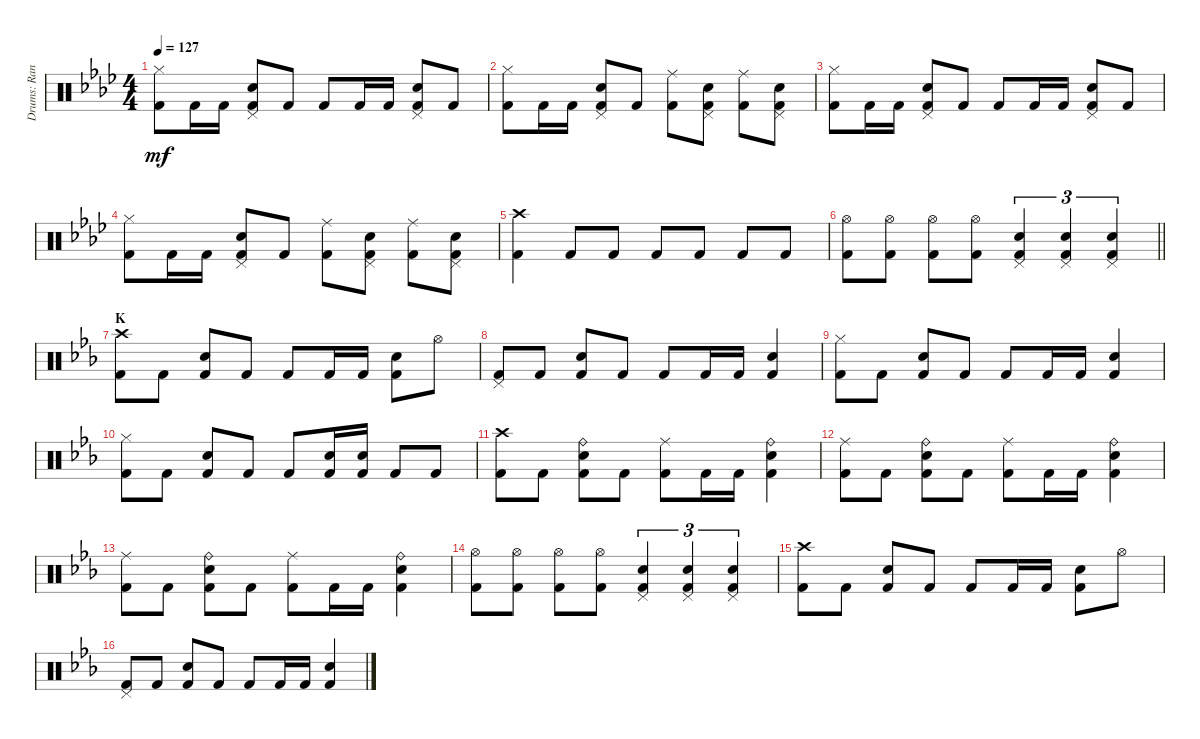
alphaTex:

\track ("Drums: Randy" "Drums: Ran") {instrument percussion}
\staff {score}
\articulation defaults
\ts (4 4)
\tempo 127
\clef neutral
\ks ab
("Hi-Hat (closed)" "Kick (hit) 2").8{dy mf} "Kick (hit) 2".16 "Kick (hit) 2".16 ("Pedal Hi-Hat (hit)" "Snare (hit) 2" "Kick (hit) 2").8 "Kick (hit) 2".8 "Kick (hit) 2".8 "Kick (hit) 2".16 "Kick (hit) 2".16 ("Pedal Hi-Hat (hit)" "Snare (hit) 2" "Kick (hit) 2").8 "Kick (hit) 2".8 |
("Hi-Hat (closed)" "Kick (hit) 2").8 "Kick (hit) 2".16 "Kick (hit) 2".16 ("Pedal Hi-Hat (hit)" "Snare (hit) 2" "Kick (hit) 2").8 "Kick (hit) 2".8 ("Ride (middle)" "Kick (hit) 2").8 ("Pedal Hi-Hat (hit)" "Snare (hit) 2" "Kick (hit) 2").8 ("Ride (middle)" "Kick (hit) 2").8 ("Pedal Hi-Hat (hit)" "Snare (hit) 2" "Kick (hit) 2").8 |
("Hi-Hat (closed)" "Kick (hit) 2").8 "Kick (hit) 2".16 "Kick (hit) 2".16 ("Pedal Hi-Hat (hit)" "Snare (hit) 2" "Kick (hit) 2").8 "Kick (hit) 2".8 "Kick (hit) 2".8 "Kick (hit) 2".16 "Kick (hit) 2".16 ("Pedal Hi-Hat (hit)" "Snare (hit) 2" "Kick (hit) 2").8 "Kick (hit) 2".8 |
("Hi-Hat (closed)" "Kick (hit) 2").8 "Kick (hit) 2".16 "Kick (hit) 2".16 ("Pedal Hi-Hat (hit)" "Snare (hit) 2" "Kick (hit) 2").8 "Kick (hit) 2".8 ("Ride (middle)" "Kick (hit) 2").8 ("Pedal Hi-Hat (hit)" "Snare (hit) 2" "Kick (hit) 2").8 ("Ride (middle)" "Kick (hit) 2").8 ("Pedal Hi-Hat (hit)" "Snare (hit) 2" "Kick (hit) 2").8 |
("Crash high (hit)" "Kick (hit) 2").4 "Kick (hit) 2".8 "Kick (hit) 2".8 "Kick (hit) 2".8 "Kick (hit) 2".8 "Kick (hit) 2".8 "Kick (hit) 2".8 |
\barLineRight lightlight
("Hi-Hat (open)" "Kick (hit) 2").8 ("Hi-Hat (open)" "Kick (hit) 2").8 ("Hi-Hat (open)" "Kick (hit) 2").8 ("Hi-Hat (open)" "Kick (hit) 2").8 ("Pedal Hi-Hat (hit)" "Snare (hit) 2" "Kick (hit) 2").4{tu (3 2)} ("Pedal Hi-Hat (hit)" "Snare (hit) 2" "Kick (hit) 2").4{tu (3 2)} ("Pedal Hi-Hat (hit)" "Snare (hit) 2" "Kick (hit) 2").4{tu (3 2)} |
\section ("" "K")
\ks eb
("Crash high (hit)" "Kick (hit) 2").8 "Kick (hit) 2".8 ("Snare (hit) 2" "Kick (hit) 2").8 "Kick (hit) 2".8 "Kick (hit) 2".8 "Kick (hit) 2".16 "Kick (hit) 2".16 ("Snare (hit) 2" "Kick (hit) 2").8 "Hi-Hat (open)".8 |
("Pedal Hi-Hat (hit)" "Kick (hit) 2").8 "Kick (hit) 2".8 ("Snare (hit) 2" "Kick (hit) 2").8 "Kick (hit) 2".8 "Kick (hit) 2".8 "Kick (hit) 2".16 "Kick (hit) 2".16 ("Snare (hit) 2" "Kick (hit) 2").4 |
("Hi-Hat (closed)" "Kick (hit) 2").8 "Kick (hit) 2".8 ("Snare (hit) 2" "Kick (hit) 2").8 "Kick (hit) 2".8 "Kick (hit) 2".8 "Kick (hit) 2".16 "Kick (hit) 2".16 ("Snare (hit) 2" "Kick (hit) 2").4 |
("Hi-Hat (closed)" "Kick (hit) 2").8 "Kick (hit) 2".8 ("Snare (hit) 2" "Kick (hit) 2").8 "Kick (hit) 2".8 "Kick (hit) 2".8 ("Snare (hit) 2" "Kick (hit) 2").16 ("Snare (hit) 2" "Kick (hit) 2").16 "Kick (hit) 2".8 "Kick (hit) 2".8 |
("Crash high (hit)" "Kick (hit) 2").8 "Kick (hit) 2".8 ("Ride (bell)" "Snare (hit) 2" "Kick (hit) 2").8 "Kick (hit) 2".8 ("Ride (middle)" "Kick (hit) 2").8 "Kick (hit) 2".16 "Kick (hit) 2".16 ("Ride (bell)" "Snare (hit) 2" "Kick (hit) 2").4 |
("Ride (middle)" "Kick (hit) 2").8 "Kick (hit) 2".8 ("Ride (bell)" "Snare (hit) 2" "Kick (hit) 2").8 "Kick (hit) 2".8 ("Ride (middle)" "Kick (hit) 2").8 "Kick (hit) 2".16 "Kick (hit) 2".16 ("Ride (bell)" "Snare (hit) 2" "Kick (hit) 2").4 |
("Ride (middle)" "Kick (hit) 2").8 "Kick (hit) 2".8 ("Ride (bell)" "Snare (hit) 2" "Kick (hit) 2").8 "Kick (hit) 2".8 ("Ride (middle)" "Kick (hit) 2").8 "Kick (hit) 2".16 "Kick (hit) 2".16 ("Ride (bell)" "Snare (hit) 2" "Kick (hit) 2").4 |
("Hi-Hat (open)" "Kick (hit) 2").8 ("Hi-Hat (open)" "Kick (hit) 2").8 ("Hi-Hat (open)" "Kick (hit) 2").8 ("Hi-Hat (open)" "Kick (hit) 2").8 ("Pedal Hi-Hat (hit)" "Snare (hit) 2" "Kick (hit) 2").4{tu (3 2)} ("Pedal Hi-Hat (hit)" "Snare (hit) 2" "Kick (hit) 2").4{tu (3 2)} ("Pedal Hi-Hat (hit)" "Snare (hit) 2" "Kick (hit) 2").4{tu (3 2)} |
("Crash high (hit)" "Kick (hit) 2").8 "Kick (hit) 2".8 ("Snare (hit) 2" "Kick (hit) 2").8 "Kick (hit) 2".8 "Kick (hit) 2".8 "Kick (hit) 2".16 "Kick (hit) 2".16 ("Snare (hit) 2" "Kick (hit) 2").8 "Hi-Hat (open)".8 |
("Pedal Hi-Hat (hit)" "Kick (hit) 2").8 "Kick (hit) 2".8 ("Snare (hit) 2" "Kick (hit) 2").8 "Kick (hit) 2".8 "Kick (hit) 2".8 "Kick (hit) 2".16 "Kick (hit) 2".16 ("Snare (hit) 2" "Kick (hit) 2").4
